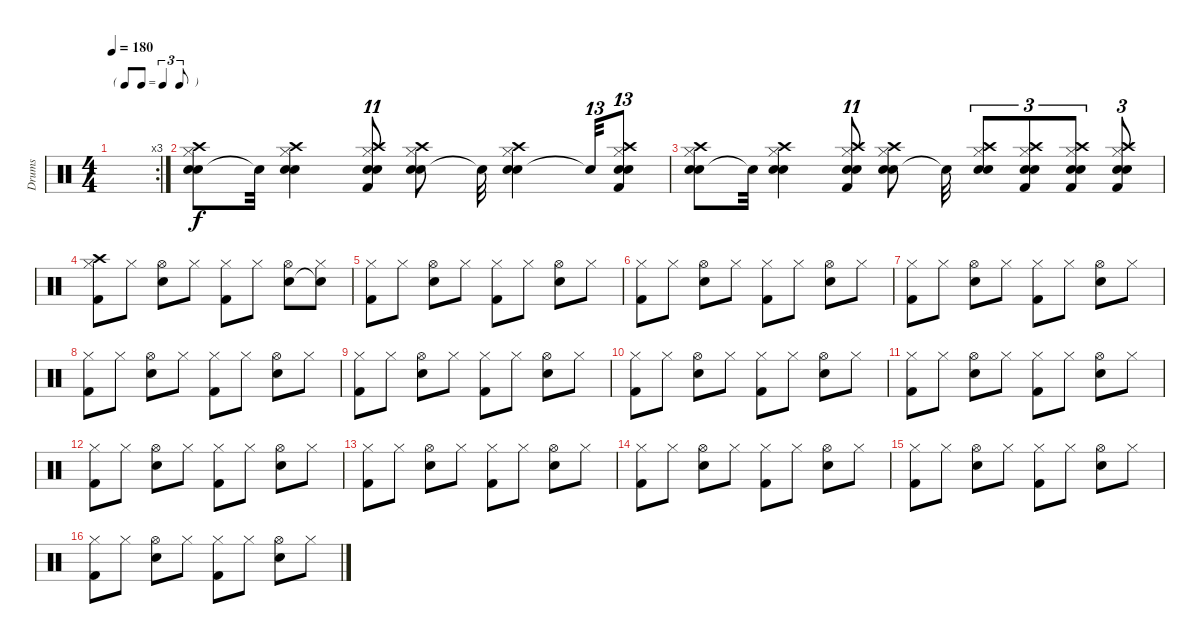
\track ("Drums" "Drums") {instrument percussion}
\staff {score}
\articulation defaults
\rc 3
\ts (4 4)
\tf triplet8th
\tempo 180
\clef neutral
\ks c
|
("Snare (hit) 2" "Hi-Hat (closed)" "Crash high (hit)" "Electric Snare (hit)").8{dy f} "Snare (hit)"{t}.32 ("Snare (hit) 2" "Hi-Hat (closed)" "Crash high (hit)" "Electric Snare (hit)").4 ("Snare (hit) 2" "Kick (hit) 2" "Hi-Hat (closed)" "Crash high (hit)" "Electric Snare (hit)").8{tu (11 8)} ("Snare (hit) 2" "Hi-Hat (closed)" "Crash high (hit)" "Electric Snare (hit)").8 "Snare (hit)"{t}.32 ("Snare (hit) 2" "Hi-Hat (closed)" "Crash high (hit)" "Electric Snare (hit)").4 "Snare (hit)"{t}.32{tu (13 8)} ("Snare (hit) 2" "Kick (hit) 2" "Hi-Hat (closed)" "Crash high (hit)" "Electric Snare (hit)").8{tu (13 8)} |
("Snare (hit) 2" "Hi-Hat (closed)" "Crash high (hit)" "Electric Snare (hit)").8 "Snare (hit)"{t}.32 ("Snare (hit) 2" "Hi-Hat (closed)" "Crash high (hit)" "Electric Snare (hit)").4 ("Snare (hit) 2" "Kick (hit) 2" "Hi-Hat (closed)" "Crash high (hit)" "Electric Snare (hit)").8{tu (11 8)} ("Snare (hit) 2" "Hi-Hat (closed)" "Crash high (hit)" "Electric Snare (hit)").8 "Snare (hit)"{t}.32 ("Snare (hit) 2" "Hi-Hat (closed)" "Crash high (hit)" "Electric Snare (hit)").8{tu (3 2)} ("Snare (hit) 2" "Hi-Hat (closed)" "Crash high (hit)" "Kick (hit) 2" "Electric Snare (hit)").8{tu (3 2)} ("Snare (hit) 2" "Hi-Hat (closed)" "Crash high (hit)" "Kick (hit) 2" "Electric Snare (hit)").8{tu (3 2)} ("Snare (hit) 2" "Hi-Hat (closed)" "Crash high (hit)" "Kick (hit) 2" "Electric Snare (hit)").8{tu (3 2)} |
("Hi-Hat (closed)" "Kick (hit) 2" "Crash high (hit)").8 "Hi-Hat (closed)".8 ("Hi-Hat (open)" "Snare (hit) 2").8 "Hi-Hat (closed)".8 ("Hi-Hat (closed)" "Kick (hit) 2").8 "Hi-Hat (closed)".8 ("Hi-Hat (open)" "Snare (hit) 2").8 ("Hi-Hat (closed)" "Snare (hit)"{t}).8 |
("Hi-Hat (closed)" "Kick (hit) 2").8 "Hi-Hat (closed)".8 ("Hi-Hat (open)" "Snare (hit) 2").8 "Hi-Hat (closed)".8 ("Hi-Hat (closed)" "Kick (hit) 2").8 "Hi-Hat (closed)".8 ("Hi-Hat (open)" "Snare (hit) 2").8 "Hi-Hat (closed)".8 |
("Hi-Hat (closed)" "Kick (hit) 2").8 "Hi-Hat (closed)".8 ("Hi-Hat (open)" "Snare (hit) 2").8 "Hi-Hat (closed)".8 ("Hi-Hat (closed)" "Kick (hit) 2").8 "Hi-Hat (closed)".8 ("Hi-Hat (open)" "Snare (hit) 2").8 "Hi-Hat (closed)".8 |
("Hi-Hat (closed)" "Kick (hit) 2").8 "Hi-Hat (closed)".8 ("Hi-Hat (open)" "Snare (hit) 2").8 "Hi-Hat (closed)".8 ("Hi-Hat (closed)" "Kick (hit) 2").8 "Hi-Hat (closed)".8 ("Hi-Hat (open)" "Snare (hit) 2").8 "Hi-Hat (closed)".8 |
("Hi-Hat (closed)" "Kick (hit) 2").8 "Hi-Hat (closed)".8 ("Hi-Hat (open)" "Snare (hit) 2").8 "Hi-Hat (closed)".8 ("Hi-Hat (closed)" "Kick (hit) 2").8 "Hi-Hat (closed)".8 ("Hi-Hat (open)" "Snare (hit) 2").8 "Hi-Hat (closed)".8 |
("Hi-Hat (closed)" "Kick (hit) 2").8 "Hi-Hat (closed)".8 ("Hi-Hat (open)" "Snare (hit) 2").8 "Hi-Hat (closed)".8 ("Hi-Hat (closed)" "Kick (hit) 2").8 "Hi-Hat (closed)".8 ("Hi-Hat (open)" "Snare (hit) 2").8 "Hi-Hat (closed)".8 |
("Hi-Hat (closed)" "Kick (hit) 2").8 "Hi-Hat (closed)".8 ("Hi-Hat (open)" "Snare (hit) 2").8 "Hi-Hat (closed)".8 ("Hi-Hat (closed)" "Kick (hit) 2").8 "Hi-Hat (closed)".8 ("Hi-Hat (open)" "Snare (hit) 2").8 "Hi-Hat (closed)".8 |
("Hi-Hat (closed)" "Kick (hit) 2").8 "Hi-Hat (closed)".8 ("Hi-Hat (open)" "Snare (hit) 2").8 "Hi-Hat (closed)".8 ("Hi-Hat (closed)" "Kick (hit) 2").8 "Hi-Hat (closed)".8 ("Hi-Hat (open)" "Snare (hit) 2").8 "Hi-Hat (closed)".8 |
("Hi-Hat (closed)" "Kick (hit) 2").8 "Hi-Hat (closed)".8 ("Hi-Hat (open)" "Snare (hit) 2").8 "Hi-Hat (closed)".8 ("Hi-Hat (closed)" "Kick (hit) 2").8 "Hi-Hat (closed)".8 ("Hi-Hat (open)" "Snare (hit) 2").8 "Hi-Hat (closed)".8 |
("Hi-Hat (closed)" "Kick (hit) 2").8 "Hi-Hat (closed)".8 ("Hi-Hat (open)" "Snare (hit) 2").8 "Hi-Hat (closed)".8 ("Hi-Hat (closed)" "Kick (hit) 2").8 "Hi-Hat (closed)".8 ("Hi-Hat (open)" "Snare (hit) 2").8 "Hi-Hat (closed)".8 |
("Hi-Hat (closed)" "Kick (hit) 2").8 "Hi-Hat (closed)".8 ("Hi-Hat (open)" "Snare (hit) 2").8 "Hi-Hat (closed)".8 ("Hi-Hat (closed)" "Kick (hit) 2").8 "Hi-Hat (closed)".8 ("Hi-Hat (open)" "Snare (hit) 2").8 "Hi-Hat (closed)".8 |
("Hi-Hat (closed)" "Kick (hit) 2").8 "Hi-Hat (closed)".8 ("Hi-Hat (open)" "Snare (hit) 2").8 "Hi-Hat (closed)".8 ("Hi-Hat (closed)" "Kick (hit) 2").8 "Hi-Hat (closed)".8 ("Hi-Hat (open)" "Snare (hit) 2").8 "Hi-Hat (closed)".8 |
("Hi-Hat (closed)" "Kick (hit) 2").8 "Hi-Hat (closed)".8 ("Hi-Hat (open)" "Snare (hit) 2").8 "Hi-Hat (closed)".8 ("Hi-Hat (closed)" "Kick (hit) 2").8 "Hi-Hat (closed)".8 ("Hi-Hat (open)" "Snare (hit) 2").8 "Hi-Hat (closed)".8
